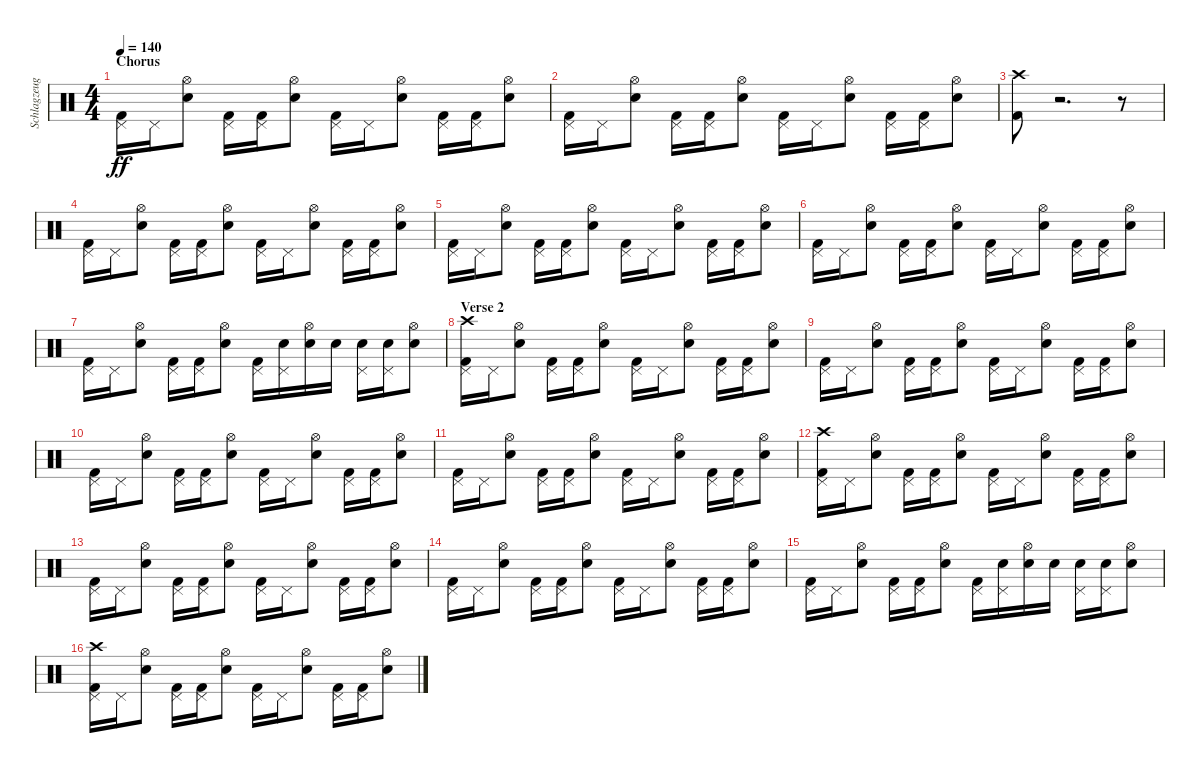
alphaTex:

\track ("Schlagzeug - Bela B." "Schlagzeug") {instrument percussion}
\staff {score}
\articulation defaults
\ts (4 4)
\section ("" "Chorus")
\tempo 140
\clef neutral
\ks c
("Kick (hit) 2" "Pedal Hi-Hat (hit)").16{dy ff} "Pedal Hi-Hat (hit)".16 ("Electric Snare (hit)" "Hi-Hat (open)").8 ("Kick (hit) 2" "Pedal Hi-Hat (hit)").16 ("Kick (hit) 2" "Pedal Hi-Hat (hit)").16 ("Electric Snare (hit)" "Hi-Hat (open)").8 ("Kick (hit) 2" "Pedal Hi-Hat (hit)").16 "Pedal Hi-Hat (hit)".16 ("Electric Snare (hit)" "Hi-Hat (open)").8 ("Kick (hit) 2" "Pedal Hi-Hat (hit)").16 ("Kick (hit) 2" "Pedal Hi-Hat (hit)").16 ("Electric Snare (hit)" "Hi-Hat (open)").8 |
("Kick (hit) 2" "Pedal Hi-Hat (hit)").16 "Pedal Hi-Hat (hit)".16 ("Electric Snare (hit)" "Hi-Hat (open)").8 ("Kick (hit) 2" "Pedal Hi-Hat (hit)").16 ("Kick (hit) 2" "Pedal Hi-Hat (hit)").16 ("Electric Snare (hit)" "Hi-Hat (open)").8 ("Kick (hit) 2" "Pedal Hi-Hat (hit)").16 "Pedal Hi-Hat (hit)".16 ("Electric Snare (hit)" "Hi-Hat (open)").8 ("Kick (hit) 2" "Pedal Hi-Hat (hit)").16 ("Kick (hit) 2" "Pedal Hi-Hat (hit)").16 ("Electric Snare (hit)" "Hi-Hat (open)").8 |
("Crash high (hit)" "Kick (hit) 2").8 r.2{d} r.8 |
("Kick (hit) 2" "Pedal Hi-Hat (hit)").16 "Pedal Hi-Hat (hit)".16 ("Electric Snare (hit)" "Hi-Hat (open)").8 ("Kick (hit) 2" "Pedal Hi-Hat (hit)").16 ("Kick (hit) 2" "Pedal Hi-Hat (hit)").16 ("Electric Snare (hit)" "Hi-Hat (open)").8 ("Kick (hit) 2" "Pedal Hi-Hat (hit)").16 "Pedal Hi-Hat (hit)".16 ("Electric Snare (hit)" "Hi-Hat (open)").8 ("Kick (hit) 2" "Pedal Hi-Hat (hit)").16 ("Kick (hit) 2" "Pedal Hi-Hat (hit)").16 ("Electric Snare (hit)" "Hi-Hat (open)").8 |
("Kick (hit) 2" "Pedal Hi-Hat (hit)").16 "Pedal Hi-Hat (hit)".16 ("Electric Snare (hit)" "Hi-Hat (open)").8 ("Kick (hit) 2" "Pedal Hi-Hat (hit)").16 ("Kick (hit) 2" "Pedal Hi-Hat (hit)").16 ("Electric Snare (hit)" "Hi-Hat (open)").8 ("Kick (hit) 2" "Pedal Hi-Hat (hit)").16 "Pedal Hi-Hat (hit)".16 ("Electric Snare (hit)" "Hi-Hat (open)").8 ("Kick (hit) 2" "Pedal Hi-Hat (hit)").16 ("Kick (hit) 2" "Pedal Hi-Hat (hit)").16 ("Electric Snare (hit)" "Hi-Hat (open)").8 |
("Kick (hit) 2" "Pedal Hi-Hat (hit)").16 "Pedal Hi-Hat (hit)".16 ("Electric Snare (hit)" "Hi-Hat (open)").8 ("Kick (hit) 2" "Pedal Hi-Hat (hit)").16 ("Kick (hit) 2" "Pedal Hi-Hat (hit)").16 ("Electric Snare (hit)" "Hi-Hat (open)").8 ("Kick (hit) 2" "Pedal Hi-Hat (hit)").16 "Pedal Hi-Hat (hit)".16 ("Electric Snare (hit)" "Hi-Hat (open)").8 ("Kick (hit) 2" "Pedal Hi-Hat (hit)").16 ("Kick (hit) 2" "Pedal Hi-Hat (hit)").16 ("Electric Snare (hit)" "Hi-Hat (open)").8 |
("Kick (hit) 2" "Pedal Hi-Hat (hit)").16 "Pedal Hi-Hat (hit)".16 ("Electric Snare (hit)" "Hi-Hat (open)").8 ("Kick (hit) 2" "Pedal Hi-Hat (hit)").16 ("Kick (hit) 2" "Pedal Hi-Hat (hit)").16 ("Electric Snare (hit)" "Hi-Hat (open)").8 ("Pedal Hi-Hat (hit)" "Kick (hit) 2").16 ("Pedal Hi-Hat (hit)" "Electric Snare (hit)").16 ("Electric Snare (hit)" "Hi-Hat (open)").16 "Electric Snare (hit)".16 ("Pedal Hi-Hat (hit)" "Electric Snare (hit)").16 ("Pedal Hi-Hat (hit)" "Electric Snare (hit)").16 ("Electric Snare (hit)" "Hi-Hat (open)").8 |
\section ("" "Verse 2")
("Kick (hit) 2" "Pedal Hi-Hat (hit)" "Crash high (hit)").16 "Pedal Hi-Hat (hit)".16 ("Electric Snare (hit)" "Hi-Hat (open)").8 ("Kick (hit) 2" "Pedal Hi-Hat (hit)").16 ("Kick (hit) 2" "Pedal Hi-Hat (hit)").16 ("Electric Snare (hit)" "Hi-Hat (open)").8 ("Kick (hit) 2" "Pedal Hi-Hat (hit)").16 "Pedal Hi-Hat (hit)".16 ("Electric Snare (hit)" "Hi-Hat (open)").8 ("Kick (hit) 2" "Pedal Hi-Hat (hit)").16 ("Kick (hit) 2" "Pedal Hi-Hat (hit)").16 ("Electric Snare (hit)" "Hi-Hat (open)").8 |
("Kick (hit) 2" "Pedal Hi-Hat (hit)").16 "Pedal Hi-Hat (hit)".16 ("Electric Snare (hit)" "Hi-Hat (open)").8 ("Kick (hit) 2" "Pedal Hi-Hat (hit)").16 ("Kick (hit) 2" "Pedal Hi-Hat (hit)").16 ("Electric Snare (hit)" "Hi-Hat (open)").8 ("Kick (hit) 2" "Pedal Hi-Hat (hit)").16 "Pedal Hi-Hat (hit)".16 ("Electric Snare (hit)" "Hi-Hat (open)").8 ("Kick (hit) 2" "Pedal Hi-Hat (hit)").16 ("Kick (hit) 2" "Pedal Hi-Hat (hit)").16 ("Electric Snare (hit)" "Hi-Hat (open)").8 |
("Kick (hit) 2" "Pedal Hi-Hat (hit)").16 "Pedal Hi-Hat (hit)".16 ("Electric Snare (hit)" "Hi-Hat (open)").8 ("Kick (hit) 2" "Pedal Hi-Hat (hit)").16 ("Kick (hit) 2" "Pedal Hi-Hat (hit)").16 ("Electric Snare (hit)" "Hi-Hat (open)").8 ("Kick (hit) 2" "Pedal Hi-Hat (hit)").16 "Pedal Hi-Hat (hit)".16 ("Electric Snare (hit)" "Hi-Hat (open)").8 ("Kick (hit) 2" "Pedal Hi-Hat (hit)").16 ("Kick (hit) 2" "Pedal Hi-Hat (hit)").16 ("Electric Snare (hit)" "Hi-Hat (open)").8 |
("Kick (hit) 2" "Pedal Hi-Hat (hit)").16 "Pedal Hi-Hat (hit)".16 ("Electric Snare (hit)" "Hi-Hat (open)").8 ("Kick (hit) 2" "Pedal Hi-Hat (hit)").16 ("Kick (hit) 2" "Pedal Hi-Hat (hit)").16 ("Electric Snare (hit)" "Hi-Hat (open)").8 ("Kick (hit) 2" "Pedal Hi-Hat (hit)").16 "Pedal Hi-Hat (hit)".16 ("Electric Snare (hit)" "Hi-Hat (open)").8 ("Kick (hit) 2" "Pedal Hi-Hat (hit)").16 ("Kick (hit) 2" "Pedal Hi-Hat (hit)").16 ("Electric Snare (hit)" "Hi-Hat (open)").8 |
("Kick (hit) 2" "Pedal Hi-Hat (hit)" "Crash high (hit)").16 "Pedal Hi-Hat (hit)".16 ("Electric Snare (hit)" "Hi-Hat (open)").8 ("Kick (hit) 2" "Pedal Hi-Hat (hit)").16 ("Kick (hit) 2" "Pedal Hi-Hat (hit)").16 ("Electric Snare (hit)" "Hi-Hat (open)").8 ("Kick (hit) 2" "Pedal Hi-Hat (hit)").16 "Pedal Hi-Hat (hit)".16 ("Electric Snare (hit)" "Hi-Hat (open)").8 ("Kick (hit) 2" "Pedal Hi-Hat (hit)").16 ("Kick (hit) 2" "Pedal Hi-Hat (hit)").16 ("Electric Snare (hit)" "Hi-Hat (open)").8 |
("Kick (hit) 2" "Pedal Hi-Hat (hit)").16 "Pedal Hi-Hat (hit)".16 ("Electric Snare (hit)" "Hi-Hat (open)").8 ("Kick (hit) 2" "Pedal Hi-Hat (hit)").16 ("Kick (hit) 2" "Pedal Hi-Hat (hit)").16 ("Electric Snare (hit)" "Hi-Hat (open)").8 ("Kick (hit) 2" "Pedal Hi-Hat (hit)").16 "Pedal Hi-Hat (hit)".16 ("Electric Snare (hit)" "Hi-Hat (open)").8 ("Kick (hit) 2" "Pedal Hi-Hat (hit)").16 ("Kick (hit) 2" "Pedal Hi-Hat (hit)").16 ("Electric Snare (hit)" "Hi-Hat (open)").8 |
("Kick (hit) 2" "Pedal Hi-Hat (hit)").16 "Pedal Hi-Hat (hit)".16 ("Electric Snare (hit)" "Hi-Hat (open)").8 ("Kick (hit) 2" "Pedal Hi-Hat (hit)").16 ("Kick (hit) 2" "Pedal Hi-Hat (hit)").16 ("Electric Snare (hit)" "Hi-Hat (open)").8 ("Kick (hit) 2" "Pedal Hi-Hat (hit)").16 "Pedal Hi-Hat (hit)".16 ("Electric Snare (hit)" "Hi-Hat (open)").8 ("Kick (hit) 2" "Pedal Hi-Hat (hit)").16 ("Kick (hit) 2" "Pedal Hi-Hat (hit)").16 ("Electric Snare (hit)" "Hi-Hat (open)").8 |
("Kick (hit) 2" "Pedal Hi-Hat (hit)").16 "Pedal Hi-Hat (hit)".16 ("Electric Snare (hit)" "Hi-Hat (open)").8 ("Kick (hit) 2" "Pedal Hi-Hat (hit)").16 ("Kick (hit) 2" "Pedal Hi-Hat (hit)").16 ("Electric Snare (hit)" "Hi-Hat (open)").8 ("Pedal Hi-Hat (hit)" "Kick (hit) 2").16 ("Pedal Hi-Hat (hit)" "Electric Snare (hit)").16 ("Electric Snare (hit)" "Hi-Hat (open)").16 "Electric Snare (hit)".16 ("Pedal Hi-Hat (hit)" "Electric Snare (hit)").16 ("Pedal Hi-Hat (hit)" "Electric Snare (hit)").16 ("Electric Snare (hit)" "Hi-Hat (open)").8 |
("Kick (hit) 2" "Pedal Hi-Hat (hit)" "Crash high (hit)").16 "Pedal Hi-Hat (hit)".16 ("Electric Snare (hit)" "Hi-Hat (open)").8 ("Kick (hit) 2" "Pedal Hi-Hat (hit)").16 ("Kick (hit) 2" "Pedal Hi-Hat (hit)").16 ("Electric Snare (hit)" "Hi-Hat (open)").8 ("Kick (hit) 2" "Pedal Hi-Hat (hit)").16 "Pedal Hi-Hat (hit)".16 ("Electric Snare (hit)" "Hi-Hat (open)").8 ("Kick (hit) 2" "Pedal Hi-Hat (hit)").16 ("Kick (hit) 2" "Pedal Hi-Hat (hit)").16 ("Electric Snare (hit)" "Hi-Hat (open)").8
